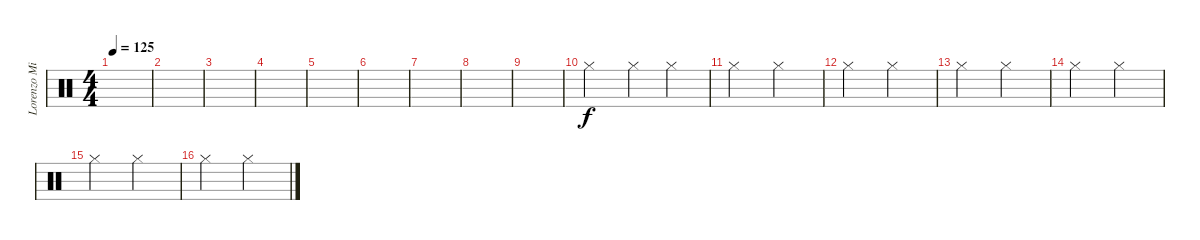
\track ("Lorenzo Milani - drums" "Lorenzo Mi") {instrument percussion}
\staff {score}
\articulation defaults
\ts (4 4)
\tempo 125
\clef neutral
\ks c
|
|
|
|
|
|
|
|
|
"Hi-Hat (closed)".2 "Hi-Hat (closed)".4 "Hi-Hat (closed)".4 |
"Hi-Hat (closed)".2 "Hi-Hat (closed)".2 |
"Hi-Hat (closed)".2 "Hi-Hat (closed)".2 |
"Hi-Hat (closed)".2 "Hi-Hat (closed)".2 |
"Hi-Hat (closed)".2 "Hi-Hat (closed)".2 |
"Hi-Hat (closed)".2 "Hi-Hat (closed)".2 |
"Hi-Hat (closed)".2 "Hi-Hat (closed)".2
